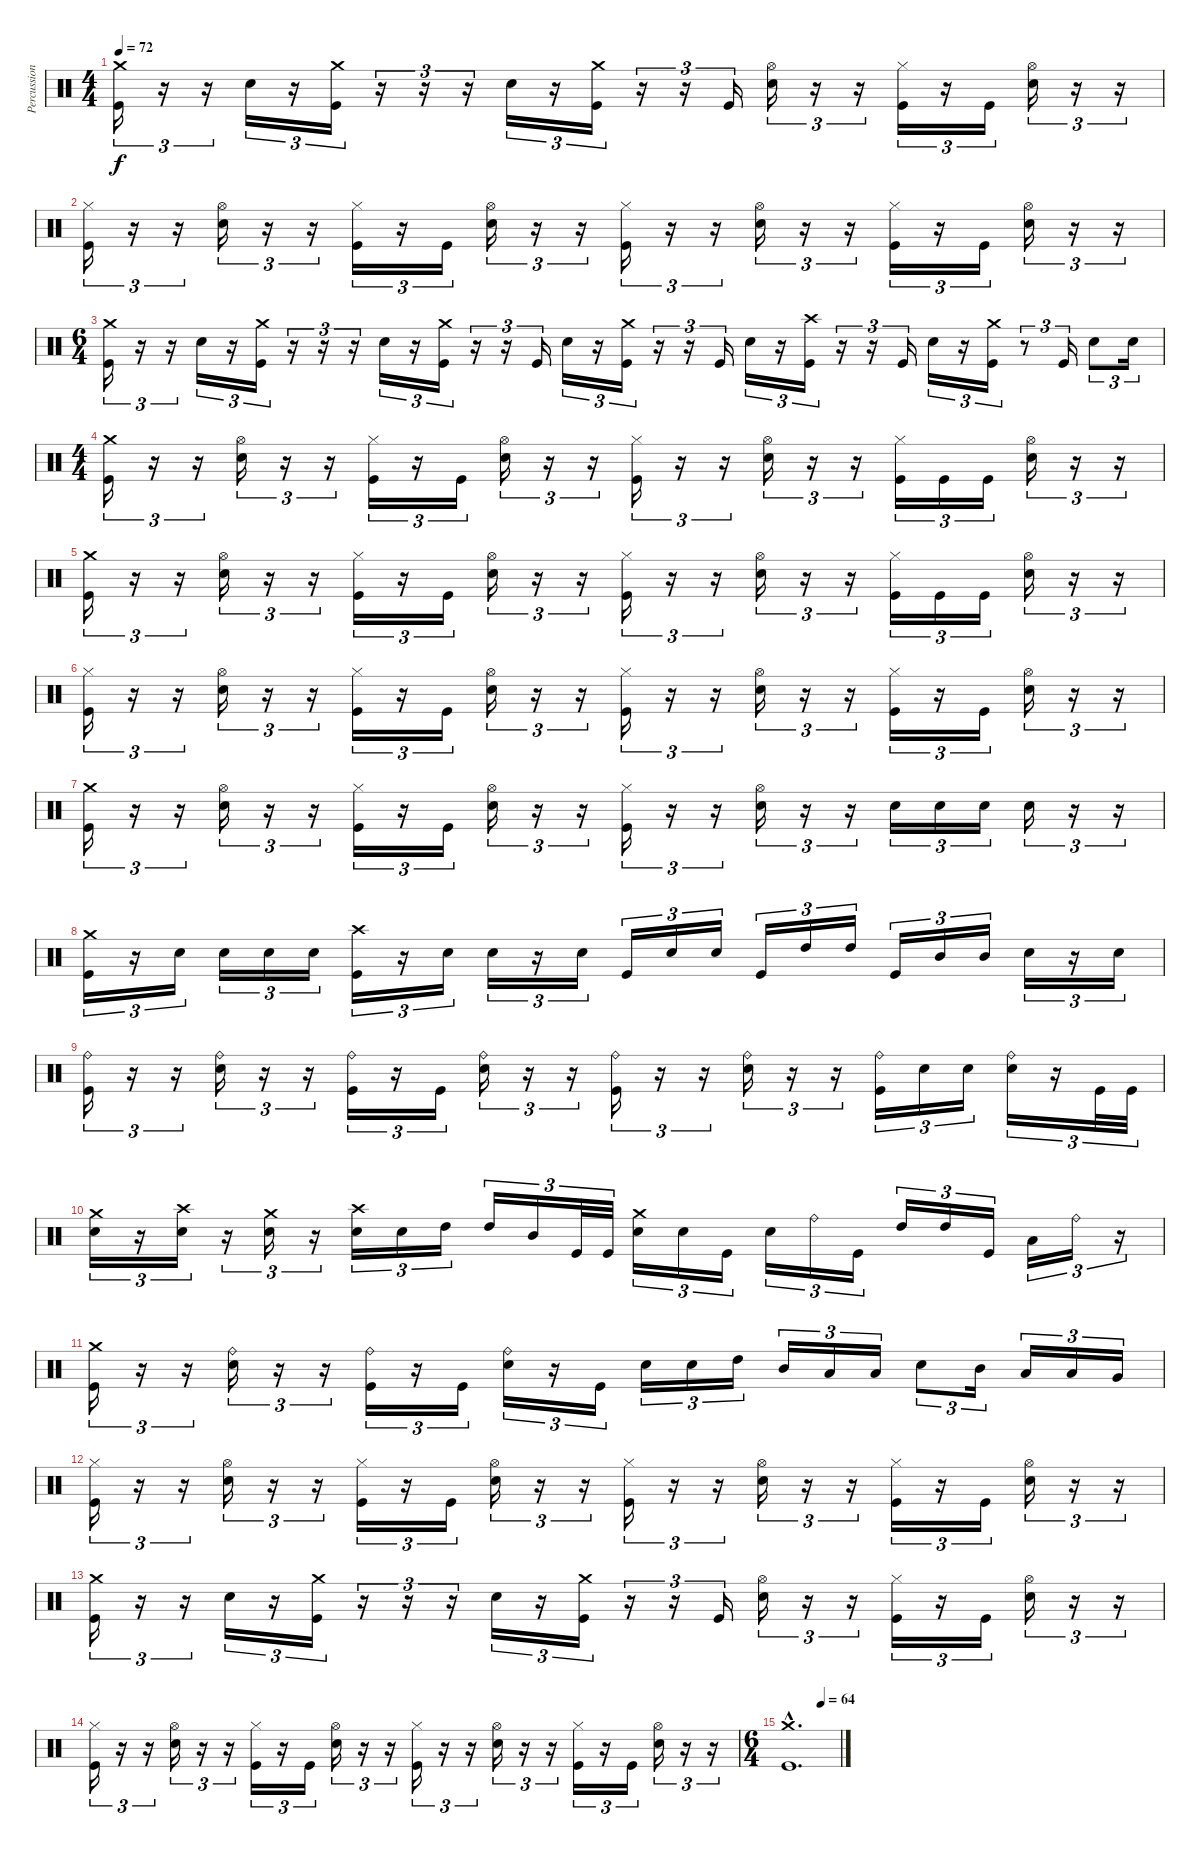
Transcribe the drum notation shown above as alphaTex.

\track ("Percussion" "Percussion") {instrument percussion}
\staff {score}
\articulation defaults
\ts (4 4)
\tempo 72
\clef neutral
\ks c
("Crash medium (hit)" "Kick (hit)").16{tu (3 2) dy f} r.16{tu (3 2)} r.16{tu (3 2)} "Electric Snare (hit)".16{tu (3 2)} r.16{tu (3 2)} ("Crash medium (hit)" "Kick (hit)").16{tu (3 2)} r.16{tu (3 2)} r.16{tu (3 2)} r.16{tu (3 2)} "Electric Snare (hit)".16{tu (3 2)} r.16{tu (3 2)} ("Crash medium (hit)" "Kick (hit)").16{tu (3 2)} r.16{tu (3 2)} r.16{tu (3 2)} "Kick (hit)".16{tu (3 2)} ("Hi-Hat (open)" "Electric Snare (hit)").16{tu (3 2)} r.16{tu (3 2)} r.16{tu (3 2)} ("Hi-Hat (closed)" "Kick (hit)").16{tu (3 2)} r.16{tu (3 2)} "Kick (hit)".16{tu (3 2)} ("Hi-Hat (open)" "Electric Snare (hit)").16{tu (3 2)} r.16{tu (3 2)} r.16{tu (3 2)} |
("Hi-Hat (closed)" "Kick (hit)").16{tu (3 2)} r.16{tu (3 2)} r.16{tu (3 2)} ("Hi-Hat (open)" "Electric Snare (hit)").16{tu (3 2)} r.16{tu (3 2)} r.16{tu (3 2)} ("Hi-Hat (closed)" "Kick (hit)").16{tu (3 2)} r.16{tu (3 2)} "Kick (hit)".16{tu (3 2)} ("Hi-Hat (open)" "Electric Snare (hit)").16{tu (3 2)} r.16{tu (3 2)} r.16{tu (3 2)} ("Hi-Hat (closed)" "Kick (hit)").16{tu (3 2)} r.16{tu (3 2)} r.16{tu (3 2)} ("Hi-Hat (open)" "Electric Snare (hit)").16{tu (3 2)} r.16{tu (3 2)} r.16{tu (3 2)} ("Hi-Hat (closed)" "Kick (hit)").16{tu (3 2)} r.16{tu (3 2)} "Kick (hit)".16{tu (3 2)} ("Hi-Hat (open)" "Electric Snare (hit)").16{tu (3 2)} r.16{tu (3 2)} r.16{tu (3 2)} |
\ts (6 4)
("Crash medium (hit)" "Kick (hit)").16{tu (3 2)} r.16{tu (3 2)} r.16{tu (3 2)} "Electric Snare (hit)".16{tu (3 2)} r.16{tu (3 2)} ("Crash medium (hit)" "Kick (hit)").16{tu (3 2)} r.16{tu (3 2)} r.16{tu (3 2)} r.16{tu (3 2)} "Electric Snare (hit)".16{tu (3 2)} r.16{tu (3 2)} ("Crash medium (hit)" "Kick (hit)").16{tu (3 2)} r.16{tu (3 2)} r.16{tu (3 2)} "Kick (hit)".16{tu (3 2)} "Electric Snare (hit)".16{tu (3 2)} r.16{tu (3 2)} ("Crash medium (hit)" "Kick (hit)").16{tu (3 2)} r.16{tu (3 2)} r.16{tu (3 2)} "Kick (hit)".16{tu (3 2)} "Electric Snare (hit)".16{tu (3 2)} r.16{tu (3 2)} ("Crash high (hit)" "Kick (hit)").16{tu (3 2)} r.16{tu (3 2)} r.16{tu (3 2)} "Kick (hit)".16{tu (3 2)} "Electric Snare (hit)".16{tu (3 2)} r.16{tu (3 2)} ("Crash medium (hit)" "Kick (hit)").16{tu (3 2)} r.8{tu (3 2)} "Kick (hit)".16{tu (3 2)} "Electric Snare (hit)".8{tu (3 2)} "Electric Snare (hit)".16{tu (3 2)} |
\ts (4 4)
("Crash medium (hit)" "Kick (hit)").16{tu (3 2)} r.16{tu (3 2)} r.16{tu (3 2)} ("Hi-Hat (open)" "Electric Snare (hit)").16{tu (3 2)} r.16{tu (3 2)} r.16{tu (3 2)} ("Hi-Hat (closed)" "Kick (hit)").16{tu (3 2)} r.16{tu (3 2)} "Kick (hit)".16{tu (3 2)} ("Hi-Hat (open)" "Electric Snare (hit)").16{tu (3 2)} r.16{tu (3 2)} r.16{tu (3 2)} ("Hi-Hat (closed)" "Kick (hit)").16{tu (3 2)} r.16{tu (3 2)} r.16{tu (3 2)} ("Hi-Hat (open)" "Electric Snare (hit)").16{tu (3 2)} r.16{tu (3 2)} r.16{tu (3 2)} ("Hi-Hat (closed)" "Kick (hit)").16{tu (3 2)} "Kick (hit)".16{tu (3 2)} "Kick (hit)".16{tu (3 2)} ("Hi-Hat (open)" "Electric Snare (hit)").16{tu (3 2)} r.16{tu (3 2)} r.16{tu (3 2)} |
("Crash medium (hit)" "Kick (hit)").16{tu (3 2)} r.16{tu (3 2)} r.16{tu (3 2)} ("Hi-Hat (open)" "Electric Snare (hit)").16{tu (3 2)} r.16{tu (3 2)} r.16{tu (3 2)} ("Hi-Hat (closed)" "Kick (hit)").16{tu (3 2)} r.16{tu (3 2)} "Kick (hit)".16{tu (3 2)} ("Hi-Hat (open)" "Electric Snare (hit)").16{tu (3 2)} r.16{tu (3 2)} r.16{tu (3 2)} ("Hi-Hat (closed)" "Kick (hit)").16{tu (3 2)} r.16{tu (3 2)} r.16{tu (3 2)} ("Hi-Hat (open)" "Electric Snare (hit)").16{tu (3 2)} r.16{tu (3 2)} r.16{tu (3 2)} ("Hi-Hat (closed)" "Kick (hit)").16{tu (3 2)} "Kick (hit)".16{tu (3 2)} "Kick (hit)".16{tu (3 2)} ("Hi-Hat (open)" "Electric Snare (hit)").16{tu (3 2)} r.16{tu (3 2)} r.16{tu (3 2)} |
("Hi-Hat (closed)" "Kick (hit)").16{tu (3 2)} r.16{tu (3 2)} r.16{tu (3 2)} ("Hi-Hat (open)" "Electric Snare (hit)").16{tu (3 2)} r.16{tu (3 2)} r.16{tu (3 2)} ("Hi-Hat (closed)" "Kick (hit)").16{tu (3 2)} r.16{tu (3 2)} "Kick (hit)".16{tu (3 2)} ("Hi-Hat (open)" "Electric Snare (hit)").16{tu (3 2)} r.16{tu (3 2)} r.16{tu (3 2)} ("Hi-Hat (closed)" "Kick (hit)").16{tu (3 2)} r.16{tu (3 2)} r.16{tu (3 2)} ("Hi-Hat (open)" "Electric Snare (hit)").16{tu (3 2)} r.16{tu (3 2)} r.16{tu (3 2)} ("Hi-Hat (closed)" "Kick (hit)").16{tu (3 2)} r.16{tu (3 2)} "Kick (hit)".16{tu (3 2)} ("Hi-Hat (open)" "Electric Snare (hit)").16{tu (3 2)} r.16{tu (3 2)} r.16{tu (3 2)} |
("Crash medium (hit)" "Kick (hit)").16{tu (3 2)} r.16{tu (3 2)} r.16{tu (3 2)} ("Hi-Hat (open)" "Electric Snare (hit)").16{tu (3 2)} r.16{tu (3 2)} r.16{tu (3 2)} ("Hi-Hat (closed)" "Kick (hit)").16{tu (3 2)} r.16{tu (3 2)} "Kick (hit)".16{tu (3 2)} ("Hi-Hat (open)" "Electric Snare (hit)").16{tu (3 2)} r.16{tu (3 2)} r.16{tu (3 2)} ("Hi-Hat (closed)" "Kick (hit)").16{tu (3 2)} r.16{tu (3 2)} r.16{tu (3 2)} ("Hi-Hat (open)" "Electric Snare (hit)").16{tu (3 2)} r.16{tu (3 2)} r.16{tu (3 2)} "Electric Snare (hit)".16{tu (3 2)} "Electric Snare (hit)".16{tu (3 2)} "Electric Snare (hit)".16{tu (3 2)} "Electric Snare (hit)".16{tu (3 2)} r.16{tu (3 2)} r.16{tu (3 2)} |
("Crash medium (hit)" "Kick (hit)").16{tu (3 2)} r.16{tu (3 2)} "Electric Snare (hit)".16{tu (3 2)} "Electric Snare (hit)".16{tu (3 2)} "Electric Snare (hit)".16{tu (3 2)} "Electric Snare (hit)".16{tu (3 2)} ("Crash high (hit)" "Kick (hit)").16{tu (3 2)} r.16{tu (3 2)} "Electric Snare (hit)".16{tu (3 2)} "Electric Snare (hit)".16{tu (3 2)} r.16{tu (3 2)} "Electric Snare (hit)".16{tu (3 2)} "Kick (hit)".16{tu (3 2)} "Electric Snare (hit)".16{tu (3 2)} "Electric Snare (hit)".16{tu (3 2)} "Kick (hit)".16{tu (3 2)} "High Tom (hit)".16{tu (3 2)} "High Tom (hit)".16{tu (3 2)} "Kick (hit)".16{tu (3 2)} "Mid Tom (hit)".16{tu (3 2)} "Mid Tom (hit)".16{tu (3 2)} "Electric Snare (hit)".16{tu (3 2)} r.16{tu (3 2)} "Electric Snare (hit)".16{tu (3 2)} |
("Ride (bell)" "Kick (hit)").16{tu (3 2)} r.16{tu (3 2)} r.16{tu (3 2)} ("Ride (bell)" "Electric Snare (hit)").16{tu (3 2)} r.16{tu (3 2)} r.16{tu (3 2)} ("Ride (bell)" "Kick (hit)").16{tu (3 2)} r.16{tu (3 2)} "Kick (hit)".16{tu (3 2)} ("Ride (bell)" "Electric Snare (hit)").16{tu (3 2)} r.16{tu (3 2)} r.16{tu (3 2)} ("Ride (bell)" "Kick (hit)").16{tu (3 2)} r.16{tu (3 2)} r.16{tu (3 2)} ("Ride (bell)" "Electric Snare (hit)").16{tu (3 2)} r.16{tu (3 2)} r.16{tu (3 2)} ("Ride (bell)" "Kick (hit)").16{tu (3 2)} "Electric Snare (hit)".16{tu (3 2)} "Electric Snare (hit)".16{tu (3 2)} ("Ride (bell)" "Electric Snare (hit)").16{tu (3 2)} r.16{tu (3 2)} "Kick (hit)".32{tu (3 2)} "Kick (hit)".32{tu (3 2)} |
("Crash medium (hit)" "Electric Snare (hit)").16{tu (3 2)} r.16{tu (3 2)} ("Crash high (hit)" "Electric Snare (hit)").16{tu (3 2)} r.16{tu (3 2)} ("Crash medium (hit)" "Electric Snare (hit)").16{tu (3 2)} r.16{tu (3 2)} ("Crash high (hit)" "Electric Snare (hit)").16{tu (3 2)} "Electric Snare (hit)".16{tu (3 2)} "High Tom (hit)".16{tu (3 2)} "High Tom (hit)".16{tu (3 2)} "Mid Tom (hit)".16{tu (3 2)} "Kick (hit)".32{tu (3 2)} "Kick (hit)".32{tu (3 2)} ("Crash medium (hit)" "Electric Snare (hit)").16{tu (3 2)} "Electric Snare (hit)".16{tu (3 2)} "Kick (hit)".16{tu (3 2)} "Electric Snare (hit)".16{tu (3 2)} "Ride (bell)".16{tu (3 2)} "Kick (hit)".16{tu (3 2)} "High Tom (hit)".16{tu (3 2)} "High Tom (hit)".16{tu (3 2)} "Kick (hit)".16{tu (3 2)} "Low Tom (hit)".16{tu (3 2)} "Ride (bell)".16{tu (3 2)} r.16{tu (3 2)} |
("Crash medium (hit)" "Kick (hit)").16{tu (3 2)} r.16{tu (3 2)} r.16{tu (3 2)} ("Ride (bell)" "Electric Snare (hit)").16{tu (3 2)} r.16{tu (3 2)} r.16{tu (3 2)} ("Ride (bell)" "Kick (hit)").16{tu (3 2)} r.16{tu (3 2)} "Kick (hit)".16{tu (3 2)} ("Ride (bell)" "Electric Snare (hit)").16{tu (3 2)} r.16{tu (3 2)} "Kick (hit)".16{tu (3 2)} "Electric Snare (hit)".16{tu (3 2)} "Electric Snare (hit)".16{tu (3 2)} "High Tom (hit)".16{tu (3 2)} "Mid Tom (hit)".16{tu (3 2)} "Low Tom (hit)".16{tu (3 2)} "Low Tom (hit)".16{tu (3 2)} "Electric Snare (hit)".8{tu (3 2)} "Mid Tom (hit)".16{tu (3 2)} "Low Tom (hit)".16{tu (3 2)} "Low Tom (hit)".16{tu (3 2)} "Very Low Tom (hit)".16{tu (3 2)} |
("Hi-Hat (closed)" "Kick (hit)").16{tu (3 2)} r.16{tu (3 2)} r.16{tu (3 2)} ("Hi-Hat (open)" "Electric Snare (hit)").16{tu (3 2)} r.16{tu (3 2)} r.16{tu (3 2)} ("Hi-Hat (closed)" "Kick (hit)").16{tu (3 2)} r.16{tu (3 2)} "Kick (hit)".16{tu (3 2)} ("Hi-Hat (open)" "Electric Snare (hit)").16{tu (3 2)} r.16{tu (3 2)} r.16{tu (3 2)} ("Hi-Hat (closed)" "Kick (hit)").16{tu (3 2)} r.16{tu (3 2)} r.16{tu (3 2)} ("Hi-Hat (open)" "Electric Snare (hit)").16{tu (3 2)} r.16{tu (3 2)} r.16{tu (3 2)} ("Hi-Hat (closed)" "Kick (hit)").16{tu (3 2)} r.16{tu (3 2)} "Kick (hit)".16{tu (3 2)} ("Hi-Hat (open)" "Electric Snare (hit)").16{tu (3 2)} r.16{tu (3 2)} r.16{tu (3 2)} |
("Crash medium (hit)" "Kick (hit)").16{tu (3 2)} r.16{tu (3 2)} r.16{tu (3 2)} "Electric Snare (hit)".16{tu (3 2)} r.16{tu (3 2)} ("Crash medium (hit)" "Kick (hit)").16{tu (3 2)} r.16{tu (3 2)} r.16{tu (3 2)} r.16{tu (3 2)} "Electric Snare (hit)".16{tu (3 2)} r.16{tu (3 2)} ("Crash medium (hit)" "Kick (hit)").16{tu (3 2)} r.16{tu (3 2)} r.16{tu (3 2)} "Kick (hit)".16{tu (3 2)} ("Hi-Hat (open)" "Electric Snare (hit)").16{tu (3 2)} r.16{tu (3 2)} r.16{tu (3 2)} ("Hi-Hat (closed)" "Kick (hit)").16{tu (3 2)} r.16{tu (3 2)} "Kick (hit)".16{tu (3 2)} ("Hi-Hat (open)" "Electric Snare (hit)").16{tu (3 2)} r.16{tu (3 2)} r.16{tu (3 2)} |
("Hi-Hat (closed)" "Kick (hit)").16{tu (3 2)} r.16{tu (3 2)} r.16{tu (3 2)} ("Hi-Hat (open)" "Electric Snare (hit)").16{tu (3 2)} r.16{tu (3 2)} r.16{tu (3 2)} ("Hi-Hat (closed)" "Kick (hit)").16{tu (3 2)} r.16{tu (3 2)} "Kick (hit)".16{tu (3 2)} ("Hi-Hat (open)" "Electric Snare (hit)").16{tu (3 2)} r.16{tu (3 2)} r.16{tu (3 2)} ("Hi-Hat (closed)" "Kick (hit)").16{tu (3 2)} r.16{tu (3 2)} r.16{tu (3 2)} ("Hi-Hat (open)" "Electric Snare (hit)").16{tu (3 2)} r.16{tu (3 2)} r.16{tu (3 2)} ("Hi-Hat (closed)" "Kick (hit)").16{tu (3 2)} r.16{tu (3 2)} "Kick (hit)".16{tu (3 2)} ("Hi-Hat (open)" "Electric Snare (hit)").16{tu (3 2)} r.16{tu (3 2)} r.16{tu (3 2)} |
\ts (6 4)
\tempo (64 0.6388888888888888)
("Crash medium (hit)"{hac} "Kick (hit)"{hac}).1{d}
